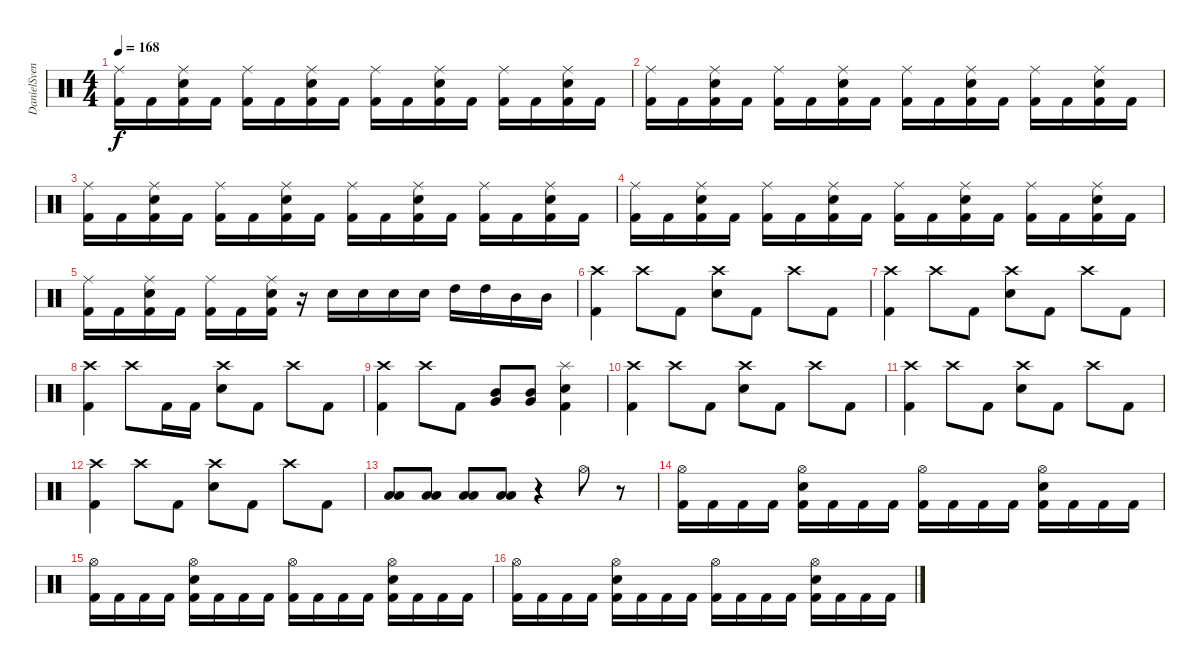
\track ("DanielSvensson" "DanielSven") {instrument percussion}
\staff {score}
\articulation defaults
\ts (4 4)
\tempo 168
\clef neutral
\ks c
("Ride (middle)" "Kick (hit) 2").16{dy f} "Kick (hit) 2".16 ("Ride (middle)" "Electric Snare (hit)" "Kick (hit) 2").16 "Kick (hit) 2".16 ("Ride (middle)" "Kick (hit) 2").16 "Kick (hit) 2".16 ("Ride (middle)" "Electric Snare (hit)" "Kick (hit) 2").16 "Kick (hit) 2".16 ("Ride (middle)" "Kick (hit) 2").16 "Kick (hit) 2".16 ("Ride (middle)" "Electric Snare (hit)" "Kick (hit) 2").16 "Kick (hit) 2".16 ("Ride (middle)" "Kick (hit) 2").16 "Kick (hit) 2".16 ("Ride (middle)" "Electric Snare (hit)" "Kick (hit) 2").16 "Kick (hit) 2".16 |
("Ride (middle)" "Kick (hit) 2").16 "Kick (hit) 2".16 ("Ride (middle)" "Electric Snare (hit)" "Kick (hit) 2").16 "Kick (hit) 2".16 ("Ride (middle)" "Kick (hit) 2").16 "Kick (hit) 2".16 ("Ride (middle)" "Electric Snare (hit)" "Kick (hit) 2").16 "Kick (hit) 2".16 ("Ride (middle)" "Kick (hit) 2").16 "Kick (hit) 2".16 ("Ride (middle)" "Electric Snare (hit)" "Kick (hit) 2").16 "Kick (hit) 2".16 ("Ride (middle)" "Kick (hit) 2").16 "Kick (hit) 2".16 ("Ride (middle)" "Electric Snare (hit)" "Kick (hit) 2").16 "Kick (hit) 2".16 |
("Ride (middle)" "Kick (hit) 2").16 "Kick (hit) 2".16 ("Ride (middle)" "Electric Snare (hit)" "Kick (hit) 2").16 "Kick (hit) 2".16 ("Ride (middle)" "Kick (hit) 2").16 "Kick (hit) 2".16 ("Ride (middle)" "Electric Snare (hit)" "Kick (hit) 2").16 "Kick (hit) 2".16 ("Ride (middle)" "Kick (hit) 2").16 "Kick (hit) 2".16 ("Ride (middle)" "Electric Snare (hit)" "Kick (hit) 2").16 "Kick (hit) 2".16 ("Ride (middle)" "Kick (hit) 2").16 "Kick (hit) 2".16 ("Ride (middle)" "Electric Snare (hit)" "Kick (hit) 2").16 "Kick (hit) 2".16 |
("Ride (middle)" "Kick (hit) 2").16 "Kick (hit) 2".16 ("Ride (middle)" "Electric Snare (hit)" "Kick (hit) 2").16 "Kick (hit) 2".16 ("Ride (middle)" "Kick (hit) 2").16 "Kick (hit) 2".16 ("Ride (middle)" "Electric Snare (hit)" "Kick (hit) 2").16 "Kick (hit) 2".16 ("Ride (middle)" "Kick (hit) 2").16 "Kick (hit) 2".16 ("Ride (middle)" "Electric Snare (hit)" "Kick (hit) 2").16 "Kick (hit) 2".16 ("Ride (middle)" "Kick (hit) 2").16 "Kick (hit) 2".16 ("Ride (middle)" "Electric Snare (hit)" "Kick (hit) 2").16 "Kick (hit) 2".16 |
("Ride (middle)" "Kick (hit) 2").16 "Kick (hit) 2".16 ("Ride (middle)" "Electric Snare (hit)" "Kick (hit) 2").16 "Kick (hit) 2".16 ("Ride (middle)" "Kick (hit) 2").16 "Kick (hit) 2".16 ("Ride (middle)" "Electric Snare (hit)" "Kick (hit) 2").16 r.16 "Electric Snare (hit)".16 "Electric Snare (hit)".16 "Electric Snare (hit)".16 "Electric Snare (hit)".16 "High Tom (hit)".16 "High Tom (hit)".16 "Mid Tom (hit)".16 "Mid Tom (hit)".16 |
("Crash high (hit)" "Kick (hit) 2").4 "Crash high (hit)".8 "Kick (hit) 2".8 ("Crash high (hit)" "Electric Snare (hit)").8 "Kick (hit) 2".8 "Crash high (hit)".8 "Kick (hit) 2".8 |
("Crash high (hit)" "Kick (hit) 2").4 "Crash high (hit)".8 "Kick (hit) 2".8 ("Crash high (hit)" "Electric Snare (hit)").8 "Kick (hit) 2".8 "Crash high (hit)".8 "Kick (hit) 2".8 |
("Crash high (hit)" "Kick (hit) 2").4 "Crash high (hit)".8 "Kick (hit) 2".16 "Kick (hit) 2".16 ("Crash high (hit)" "Electric Snare (hit)").8 "Kick (hit) 2".8 "Crash high (hit)".8 "Kick (hit) 2".8 |
("Crash high (hit)" "Kick (hit) 2").4 "Crash high (hit)".8 "Kick (hit) 2".8 ("Mid Tom (hit)" "Very Low Tom (hit)").8 ("Mid Tom (hit)" "Very Low Tom (hit)").8 ("Splash (hit)" "Electric Snare (hit)" "Kick (hit) 2").4 |
("Crash high (hit)" "Kick (hit) 2").4 "Crash high (hit)".8 "Kick (hit) 2".8 ("Crash high (hit)" "Electric Snare (hit)").8 "Kick (hit) 2".8 "Crash high (hit)".8 "Kick (hit) 2".8 |
("Crash high (hit)" "Kick (hit) 2").4 "Crash high (hit)".8 "Kick (hit) 2".8 ("Crash high (hit)" "Electric Snare (hit)").8 "Kick (hit) 2".8 "Crash high (hit)".8 "Kick (hit) 2".8 |
("Crash high (hit)" "Kick (hit) 2").4 "Crash high (hit)".8 "Kick (hit) 2".8 ("Crash high (hit)" "Electric Snare (hit)").8 "Kick (hit) 2".8 "Crash high (hit)".8 "Kick (hit) 2".8 |
("Low Tom (hit)" "Low Floor Tom (hit)").8 ("Low Tom (hit)" "Low Floor Tom (hit)").8 ("Low Tom (hit)" "Low Floor Tom (hit)").8 ("Low Tom (hit)" "Low Floor Tom (hit)").8 r.4 "Hi-Hat (open)".8 r.8 |
("Hi-Hat (open)" "Kick (hit) 2").16 "Kick (hit) 2".16 "Kick (hit) 2".16 "Kick (hit) 2".16 ("Hi-Hat (open)" "Electric Snare (hit)" "Kick (hit) 2").16 "Kick (hit) 2".16 "Kick (hit) 2".16 "Kick (hit) 2".16 ("Hi-Hat (open)" "Kick (hit) 2").16 "Kick (hit) 2".16 "Kick (hit) 2".16 "Kick (hit) 2".16 ("Hi-Hat (open)" "Electric Snare (hit)" "Kick (hit) 2").16 "Kick (hit) 2".16 "Kick (hit) 2".16 "Kick (hit) 2".16 |
("Hi-Hat (open)" "Kick (hit) 2").16 "Kick (hit) 2".16 "Kick (hit) 2".16 "Kick (hit) 2".16 ("Hi-Hat (open)" "Electric Snare (hit)" "Kick (hit) 2").16 "Kick (hit) 2".16 "Kick (hit) 2".16 "Kick (hit) 2".16 ("Hi-Hat (open)" "Kick (hit) 2").16 "Kick (hit) 2".16 "Kick (hit) 2".16 "Kick (hit) 2".16 ("Hi-Hat (open)" "Electric Snare (hit)" "Kick (hit) 2").16 "Kick (hit) 2".16 "Kick (hit) 2".16 "Kick (hit) 2".16 |
("Hi-Hat (open)" "Kick (hit) 2").16 "Kick (hit) 2".16 "Kick (hit) 2".16 "Kick (hit) 2".16 ("Hi-Hat (open)" "Electric Snare (hit)" "Kick (hit) 2").16 "Kick (hit) 2".16 "Kick (hit) 2".16 "Kick (hit) 2".16 ("Hi-Hat (open)" "Kick (hit) 2").16 "Kick (hit) 2".16 "Kick (hit) 2".16 "Kick (hit) 2".16 ("Hi-Hat (open)" "Electric Snare (hit)" "Kick (hit) 2").16 "Kick (hit) 2".16 "Kick (hit) 2".16 "Kick (hit) 2".16
